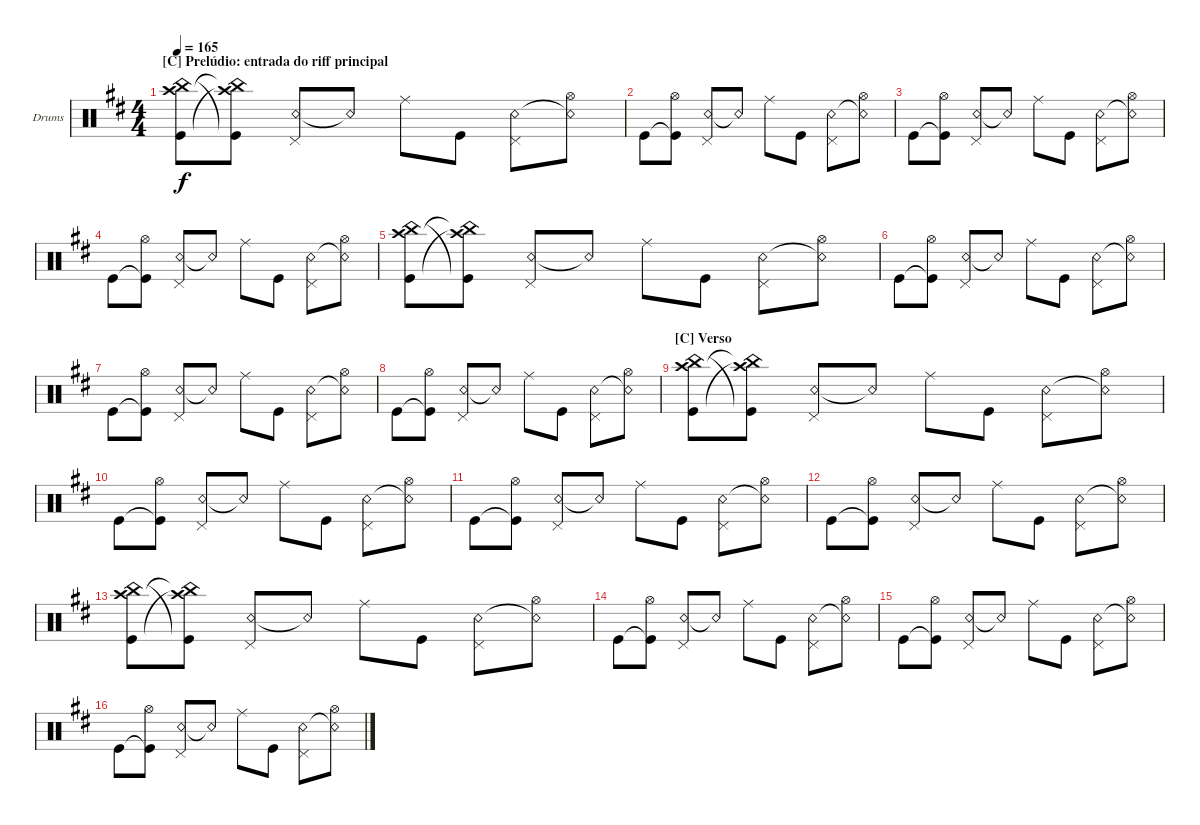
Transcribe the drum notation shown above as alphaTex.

\defaultSystemsLayout 4
\bracketExtendMode groupsimilarinstruments
\firstSystemTrackNameOrientation horizontal
\otherSystemsTrackNameOrientation horizontal
\track ("Bateria" "Drums") {multiBarRest instrument percussion}
\staff {score}
\articulation defaults
\ts (4 4)
\section ("C" "Prelúdio: entrada do riff principal")
\tempo 165
\clef neutral
\ks d
("China (hit)" "Crash high (hit)" "Kick (hit)").8{dy f} ("Kick (hit)"{t} "China (hit)"{t} "Crash high (hit)"{t}).8 ("Snare (rim shot)" "Pedal Hi-Hat (hit)").8 "Snare (rim shot)"{t}.8 "Ride (middle)".8 "Kick (hit)".8 ("Snare (rim shot)" "Pedal Hi-Hat (hit)").8 ("Snare (rim shot)"{t} "Hi-Hat (open)").8 |
"Kick (hit)".8 ("Kick (hit)"{t} "Hi-Hat (open)").8 ("Snare (rim shot)" "Pedal Hi-Hat (hit)").8 "Snare (rim shot)"{t}.8 "Ride (middle)".8 "Kick (hit)".8 ("Snare (rim shot)" "Pedal Hi-Hat (hit)").8 ("Snare (rim shot)"{t} "Hi-Hat (open)").8 |
"Kick (hit)".8 ("Kick (hit)"{t} "Hi-Hat (open)").8 ("Snare (rim shot)" "Pedal Hi-Hat (hit)").8 "Snare (rim shot)"{t}.8 "Ride (middle)".8 "Kick (hit)".8 ("Snare (rim shot)" "Pedal Hi-Hat (hit)").8 ("Snare (rim shot)"{t} "Hi-Hat (open)").8 |
"Kick (hit)".8 ("Kick (hit)"{t} "Hi-Hat (open)").8 ("Snare (rim shot)" "Pedal Hi-Hat (hit)").8 "Snare (rim shot)"{t}.8 "Ride (middle)".8 "Kick (hit)".8 ("Snare (rim shot)" "Pedal Hi-Hat (hit)").8 ("Snare (rim shot)"{t} "Hi-Hat (open)").8 |
("China (hit)" "Crash high (hit)" "Kick (hit)").8 ("Kick (hit)"{t} "China (hit)"{t} "Crash high (hit)"{t}).8 ("Snare (rim shot)" "Pedal Hi-Hat (hit)").8 "Snare (rim shot)"{t}.8 "Ride (middle)".8 "Kick (hit)".8 ("Snare (rim shot)" "Pedal Hi-Hat (hit)").8 ("Snare (rim shot)"{t} "Hi-Hat (open)").8 |
"Kick (hit)".8 ("Kick (hit)"{t} "Hi-Hat (open)").8 ("Snare (rim shot)" "Pedal Hi-Hat (hit)").8 "Snare (rim shot)"{t}.8 "Ride (middle)".8 "Kick (hit)".8 ("Snare (rim shot)" "Pedal Hi-Hat (hit)").8 ("Snare (rim shot)"{t} "Hi-Hat (open)").8 |
"Kick (hit)".8 ("Kick (hit)"{t} "Hi-Hat (open)").8 ("Snare (rim shot)" "Pedal Hi-Hat (hit)").8 "Snare (rim shot)"{t}.8 "Ride (middle)".8 "Kick (hit)".8 ("Snare (rim shot)" "Pedal Hi-Hat (hit)").8 ("Snare (rim shot)"{t} "Hi-Hat (open)").8 |
"Kick (hit)".8 ("Kick (hit)"{t} "Hi-Hat (open)").8 ("Snare (rim shot)" "Pedal Hi-Hat (hit)").8 "Snare (rim shot)"{t}.8 "Ride (middle)".8 "Kick (hit)".8 ("Snare (rim shot)" "Pedal Hi-Hat (hit)").8 ("Snare (rim shot)"{t} "Hi-Hat (open)").8 |
\section ("C" "Verso")
("China (hit)" "Crash high (hit)" "Kick (hit)").8 ("Kick (hit)"{t} "China (hit)"{t} "Crash high (hit)"{t}).8 ("Snare (rim shot)" "Pedal Hi-Hat (hit)").8 "Snare (rim shot)"{t}.8 "Ride (middle)".8 "Kick (hit)".8 ("Snare (rim shot)" "Pedal Hi-Hat (hit)").8 ("Snare (rim shot)"{t} "Hi-Hat (open)").8 |
"Kick (hit)".8 ("Kick (hit)"{t} "Hi-Hat (open)").8 ("Snare (rim shot)" "Pedal Hi-Hat (hit)").8 "Snare (rim shot)"{t}.8 "Ride (middle)".8 "Kick (hit)".8 ("Snare (rim shot)" "Pedal Hi-Hat (hit)").8 ("Snare (rim shot)"{t} "Hi-Hat (open)").8 |
"Kick (hit)".8 ("Kick (hit)"{t} "Hi-Hat (open)").8 ("Snare (rim shot)" "Pedal Hi-Hat (hit)").8 "Snare (rim shot)"{t}.8 "Ride (middle)".8 "Kick (hit)".8 ("Snare (rim shot)" "Pedal Hi-Hat (hit)").8 ("Snare (rim shot)"{t} "Hi-Hat (open)").8 |
"Kick (hit)".8 ("Kick (hit)"{t} "Hi-Hat (open)").8 ("Snare (rim shot)" "Pedal Hi-Hat (hit)").8 "Snare (rim shot)"{t}.8 "Ride (middle)".8 "Kick (hit)".8 ("Snare (rim shot)" "Pedal Hi-Hat (hit)").8 ("Snare (rim shot)"{t} "Hi-Hat (open)").8 |
("China (hit)" "Crash high (hit)" "Kick (hit)").8 ("Kick (hit)"{t} "China (hit)"{t} "Crash high (hit)"{t}).8 ("Snare (rim shot)" "Pedal Hi-Hat (hit)").8 "Snare (rim shot)"{t}.8 "Ride (middle)".8 "Kick (hit)".8 ("Snare (rim shot)" "Pedal Hi-Hat (hit)").8 ("Snare (rim shot)"{t} "Hi-Hat (open)").8 |
"Kick (hit)".8 ("Kick (hit)"{t} "Hi-Hat (open)").8 ("Snare (rim shot)" "Pedal Hi-Hat (hit)").8 "Snare (rim shot)"{t}.8 "Ride (middle)".8 "Kick (hit)".8 ("Snare (rim shot)" "Pedal Hi-Hat (hit)").8 ("Snare (rim shot)"{t} "Hi-Hat (open)").8 |
"Kick (hit)".8 ("Kick (hit)"{t} "Hi-Hat (open)").8 ("Snare (rim shot)" "Pedal Hi-Hat (hit)").8 "Snare (rim shot)"{t}.8 "Ride (middle)".8 "Kick (hit)".8 ("Snare (rim shot)" "Pedal Hi-Hat (hit)").8 ("Snare (rim shot)"{t} "Hi-Hat (open)").8 |
"Kick (hit)".8 ("Kick (hit)"{t} "Hi-Hat (open)").8 ("Snare (rim shot)" "Pedal Hi-Hat (hit)").8 "Snare (rim shot)"{t}.8 "Ride (middle)".8 "Kick (hit)".8 ("Snare (rim shot)" "Pedal Hi-Hat (hit)").8 ("Snare (rim shot)"{t} "Hi-Hat (open)").8
